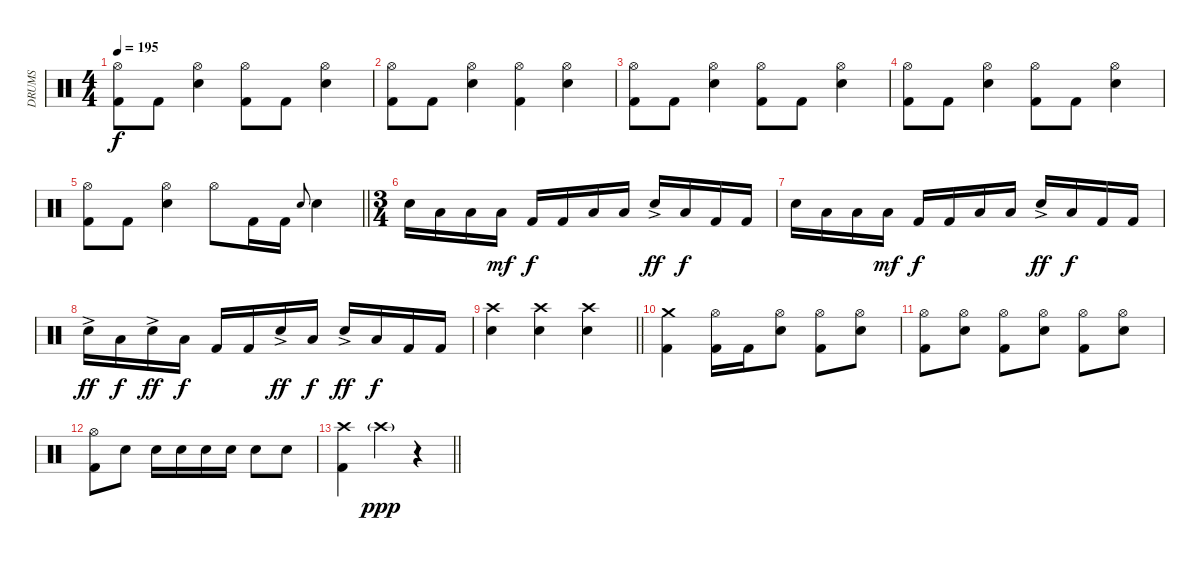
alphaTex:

\track ("DRUMS" "DRUMS") {instrument percussion}
\staff {score}
\articulation defaults
\ts (4 4)
\tempo 195
\clef neutral
\ks c
("Hi-Hat (open)" "Kick (hit) 2").8{dy f} "Kick (hit) 2".8 ("Hi-Hat (open)" "Snare (hit) 2").4 ("Hi-Hat (open)" "Kick (hit) 2").8 "Kick (hit) 2".8 ("Hi-Hat (open)" "Snare (hit) 2").4 |
("Hi-Hat (open)" "Kick (hit) 2").8 "Kick (hit) 2".8 ("Hi-Hat (open)" "Snare (hit) 2").4 ("Hi-Hat (open)" "Kick (hit) 2").4 ("Hi-Hat (open)" "Snare (hit) 2").4 |
("Hi-Hat (open)" "Kick (hit) 2").8 "Kick (hit) 2".8 ("Hi-Hat (open)" "Snare (hit) 2").4 ("Hi-Hat (open)" "Kick (hit) 2").8 "Kick (hit) 2".8 ("Hi-Hat (open)" "Snare (hit) 2").4 |
("Hi-Hat (open)" "Kick (hit) 2").8 "Kick (hit) 2".8 ("Hi-Hat (open)" "Snare (hit) 2").4 ("Hi-Hat (open)" "Kick (hit) 2").8 "Kick (hit) 2".8 ("Hi-Hat (open)" "Snare (hit) 2").4 |
\barLineRight lightlight
("Hi-Hat (open)" "Kick (hit) 2").8 "Kick (hit) 2".8 ("Hi-Hat (open)" "Snare (hit) 2").4 "Hi-Hat (open)".8 "Kick (hit) 2".16 "Kick (hit) 2".16 "Snare (hit) 2".8{gr onbeat} "Snare (hit) 2".4 |
\ts (3 4)
"Snare (hit) 2".16 "Low Tom (hit)".16 "Low Floor Tom (hit)".16 "Low Tom (hit)".16{dy mf} "Kick (hit) 2".16{dy f} "Kick (hit) 2".16 "Low Floor Tom (hit)".16 "Low Tom (hit)".16 "Snare (hit) 2"{ac}.16{dy ff} "Low Tom (hit)".16{dy f} "Kick (hit) 2".16 "Kick (hit) 2".16 |
"Snare (hit) 2".16 "Low Tom (hit)".16 "Low Floor Tom (hit)".16 "Low Tom (hit)".16{dy mf} "Kick (hit) 2".16{dy f} "Kick (hit) 2".16 "Low Floor Tom (hit)".16 "Low Tom (hit)".16 "Snare (hit) 2"{ac}.16{dy ff} "Low Tom (hit)".16{dy f} "Kick (hit) 2".16 "Kick (hit) 2".16 |
"Snare (hit) 2"{ac}.16{dy ff} "Low Tom (hit)".16{dy f} "Snare (hit) 2"{ac}.16{dy ff} "Low Tom (hit)".16{dy f} "Kick (hit) 2".16 "Kick (hit) 2".16 "Snare (hit) 2"{ac}.16{dy ff} "Low Tom (hit)".16{dy f} "Snare (hit) 2"{ac}.16{dy ff} "Low Tom (hit)".16{dy f} "Kick (hit) 2".16 "Kick (hit) 2".16 |
\barLineRight lightlight
("Crash high (hit)" "Snare (hit) 2").4 ("Crash high (hit)" "Snare (hit) 2").4 ("Crash high (hit)" "Snare (hit) 2").4 |
("Crash medium (hit)" "Kick (hit) 2").4 ("Hi-Hat (open)" "Kick (hit) 2").16 "Kick (hit) 2".16 ("Hi-Hat (open)" "Snare (hit) 2").8 ("Hi-Hat (open)" "Kick (hit) 2").8 ("Hi-Hat (open)" "Snare (hit) 2").8 |
("Hi-Hat (open)" "Kick (hit) 2").8 ("Hi-Hat (open)" "Snare (hit) 2").8 ("Hi-Hat (open)" "Kick (hit) 2").8 ("Hi-Hat (open)" "Snare (hit) 2").8 ("Hi-Hat (open)" "Kick (hit) 2").8 ("Hi-Hat (open)" "Snare (hit) 2").8 |
("Hi-Hat (open)" "Kick (hit) 2").8 "Snare (hit) 2".8 "Snare (hit) 2".16 "Snare (hit) 2".16 "Snare (hit) 2".16 "Snare (hit) 2".16 "Snare (hit) 2".8 "Snare (hit) 2".8 |
\barLineRight lightlight
("Crash high (hit)" "Kick (hit) 2").4 "Crash high (hit)"{g}.4{dy ppp} r.4
